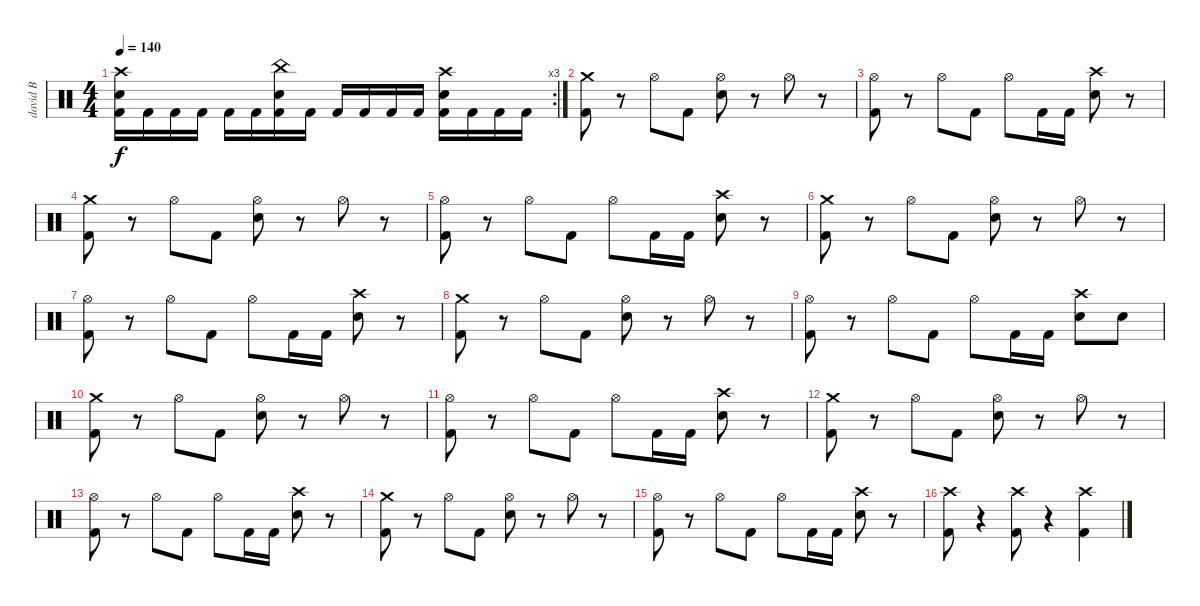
\track ("david B" "david B") {instrument percussion}
\staff {score}
\articulation defaults
\rc 3
\ts (4 4)
\tempo 140
\clef neutral
\ks c
("Crash high (hit)" "Electric Snare (hit)" "Kick (hit) 2").16{dy f} "Kick (hit) 2".16 "Kick (hit) 2".16 "Kick (hit) 2".16 "Kick (hit) 2".16 "Kick (hit) 2".16 ("China (hit)" "Electric Snare (hit)" "Kick (hit) 2").16 "Kick (hit) 2".16 "Kick (hit) 2".16 "Kick (hit) 2".16 "Kick (hit) 2".16 "Kick (hit) 2".16 ("Crash high (hit)" "Electric Snare (hit)" "Kick (hit) 2").16 "Kick (hit) 2".16 "Kick (hit) 2".16 "Kick (hit) 2".16 |
("Crash medium (hit)" "Kick (hit) 2").8 r.8 "Hi-Hat (open)".8 "Kick (hit) 2".8 ("Hi-Hat (open)" "Electric Snare (hit)").8 r.8 "Hi-Hat (open)".8 r.8 |
("Hi-Hat (open)" "Kick (hit) 2").8 r.8 "Hi-Hat (open)".8 "Kick (hit) 2".8 "Hi-Hat (open)".8 "Kick (hit) 2".16 "Kick (hit) 2".16 ("Crash high (hit)" "Electric Snare (hit)").8 r.8 |
("Crash medium (hit)" "Kick (hit) 2").8 r.8 "Hi-Hat (open)".8 "Kick (hit) 2".8 ("Hi-Hat (open)" "Electric Snare (hit)").8 r.8 "Hi-Hat (open)".8 r.8 |
("Hi-Hat (open)" "Kick (hit) 2").8 r.8 "Hi-Hat (open)".8 "Kick (hit) 2".8 "Hi-Hat (open)".8 "Kick (hit) 2".16 "Kick (hit) 2".16 ("Crash high (hit)" "Electric Snare (hit)").8 r.8 |
("Crash medium (hit)" "Kick (hit) 2").8 r.8 "Hi-Hat (open)".8 "Kick (hit) 2".8 ("Hi-Hat (open)" "Electric Snare (hit)").8 r.8 "Hi-Hat (open)".8 r.8 |
("Hi-Hat (open)" "Kick (hit) 2").8 r.8 "Hi-Hat (open)".8 "Kick (hit) 2".8 "Hi-Hat (open)".8 "Kick (hit) 2".16 "Kick (hit) 2".16 ("Crash high (hit)" "Electric Snare (hit)").8 r.8 |
("Crash medium (hit)" "Kick (hit) 2").8 r.8 "Hi-Hat (open)".8 "Kick (hit) 2".8 ("Hi-Hat (open)" "Electric Snare (hit)").8 r.8 "Hi-Hat (open)".8 r.8 |
("Hi-Hat (open)" "Kick (hit) 2").8 r.8 "Hi-Hat (open)".8 "Kick (hit) 2".8 "Hi-Hat (open)".8 "Kick (hit) 2".16 "Kick (hit) 2".16 ("Crash high (hit)" "Electric Snare (hit)").8 "Electric Snare (hit)".8 |
("Crash medium (hit)" "Kick (hit) 2").8 r.8 "Hi-Hat (open)".8 "Kick (hit) 2".8 ("Hi-Hat (open)" "Electric Snare (hit)").8 r.8 "Hi-Hat (open)".8 r.8 |
("Hi-Hat (open)" "Kick (hit) 2").8 r.8 "Hi-Hat (open)".8 "Kick (hit) 2".8 "Hi-Hat (open)".8 "Kick (hit) 2".16 "Kick (hit) 2".16 ("Crash high (hit)" "Electric Snare (hit)").8 r.8 |
("Crash medium (hit)" "Kick (hit) 2").8 r.8 "Hi-Hat (open)".8 "Kick (hit) 2".8 ("Hi-Hat (open)" "Electric Snare (hit)").8 r.8 "Hi-Hat (open)".8 r.8 |
("Hi-Hat (open)" "Kick (hit) 2").8 r.8 "Hi-Hat (open)".8 "Kick (hit) 2".8 "Hi-Hat (open)".8 "Kick (hit) 2".16 "Kick (hit) 2".16 ("Crash high (hit)" "Electric Snare (hit)").8 r.8 |
("Crash medium (hit)" "Kick (hit) 2").8 r.8 "Hi-Hat (open)".8 "Kick (hit) 2".8 ("Hi-Hat (open)" "Electric Snare (hit)").8 r.8 "Hi-Hat (open)".8 r.8 |
("Hi-Hat (open)" "Kick (hit) 2").8 r.8 "Hi-Hat (open)".8 "Kick (hit) 2".8 "Hi-Hat (open)".8 "Kick (hit) 2".16 "Kick (hit) 2".16 ("Crash high (hit)" "Electric Snare (hit)").8 r.8 |
("Crash high (hit)" "Kick (hit) 2").8 r.4 ("Crash high (hit)" "Kick (hit) 2").8 r.4 ("Crash high (hit)" "Kick (hit) 2").4
